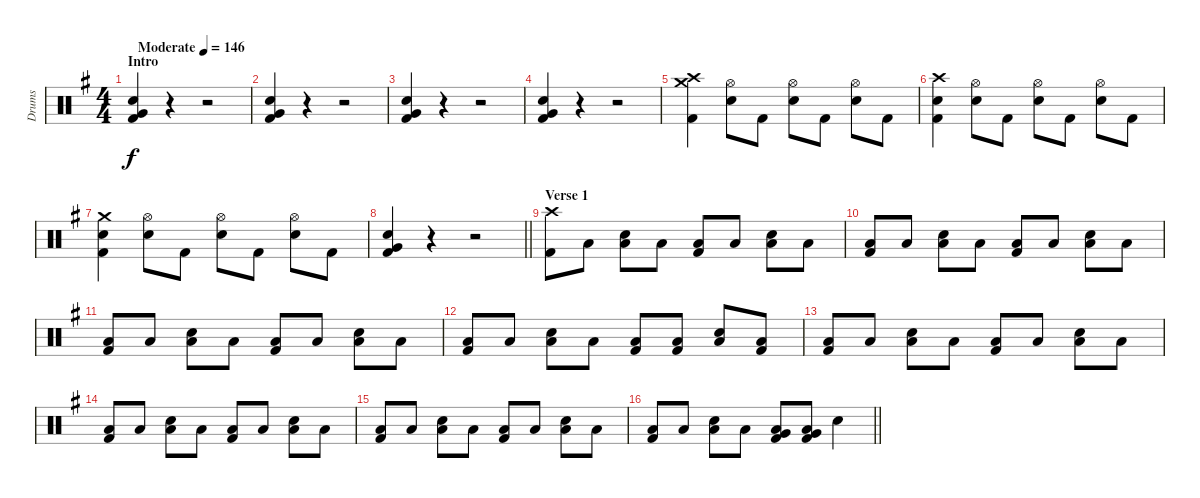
\track ("Drums" "Drums") {instrument percussion}
\staff {score}
\articulation defaults
\ts (4 4)
\section ("" "Intro")
\tempo (146 "Moderate")
\clef neutral
\ks g
("Electric Snare (hit)" "Very Low Tom (hit)" "Kick (hit) 2").4{dy f} r.4 r.2 |
("Electric Snare (hit)" "Very Low Tom (hit)" "Kick (hit) 2").4 r.4 r.2 |
("Electric Snare (hit)" "Very Low Tom (hit)" "Kick (hit) 2").4 r.4 r.2 |
("Electric Snare (hit)" "Very Low Tom (hit)" "Kick (hit) 2").4 r.4 r.2 |
("Crash high (hit)" "Crash medium (hit)" "Kick (hit) 2").4 ("Hi-Hat (open)" "Electric Snare (hit)").8 "Kick (hit) 2".8 ("Hi-Hat (open)" "Electric Snare (hit)").8 "Kick (hit) 2".8 ("Hi-Hat (open)" "Electric Snare (hit)").8 "Kick (hit) 2".8 |
("Crash high (hit)" "Electric Snare (hit)" "Kick (hit) 2").4 ("Hi-Hat (open)" "Electric Snare (hit)").8 "Kick (hit) 2".8 ("Hi-Hat (open)" "Electric Snare (hit)").8 "Kick (hit) 2".8 ("Hi-Hat (open)" "Electric Snare (hit)").8 "Kick (hit) 2".8 |
("Crash medium (hit)" "Electric Snare (hit)" "Kick (hit) 2").4 ("Hi-Hat (open)" "Electric Snare (hit)").8 "Kick (hit) 2".8 ("Hi-Hat (open)" "Electric Snare (hit)").8 "Kick (hit) 2".8 ("Hi-Hat (open)" "Electric Snare (hit)").8 "Kick (hit) 2".8 |
\barLineRight lightlight
("Electric Snare (hit)" "Very Low Tom (hit)" "Kick (hit) 2").4 r.4 r.2 |
\section ("" "Verse 1")
("Crash high (hit)" "Kick (hit) 2").8 "Low Floor Tom (hit)".8 ("Low Floor Tom (hit)" "Electric Snare (hit)").8 "Low Floor Tom (hit)".8 ("Low Floor Tom (hit)" "Kick (hit) 2").8 "Low Floor Tom (hit)".8 ("Low Floor Tom (hit)" "Electric Snare (hit)").8 "Low Floor Tom (hit)".8 |
("Low Floor Tom (hit)" "Kick (hit) 2").8 "Low Floor Tom (hit)".8 ("Low Floor Tom (hit)" "Electric Snare (hit)").8 "Low Floor Tom (hit)".8 ("Low Floor Tom (hit)" "Kick (hit) 2").8 "Low Floor Tom (hit)".8 ("Low Floor Tom (hit)" "Electric Snare (hit)").8 "Low Floor Tom (hit)".8 |
("Low Floor Tom (hit)" "Kick (hit) 2").8 "Low Floor Tom (hit)".8 ("Low Floor Tom (hit)" "Electric Snare (hit)").8 "Low Floor Tom (hit)".8 ("Low Floor Tom (hit)" "Kick (hit) 2").8 "Low Floor Tom (hit)".8 ("Low Floor Tom (hit)" "Electric Snare (hit)").8 "Low Floor Tom (hit)".8 |
("Low Floor Tom (hit)" "Kick (hit) 2").8 "Low Floor Tom (hit)".8 ("Low Floor Tom (hit)" "Electric Snare (hit)").8 "Low Floor Tom (hit)".8 ("Low Floor Tom (hit)" "Kick (hit) 2").8 ("Low Floor Tom (hit)" "Kick (hit) 2").8 ("Low Floor Tom (hit)" "Electric Snare (hit)").8 ("Low Floor Tom (hit)" "Kick (hit) 2").8 |
("Low Floor Tom (hit)" "Kick (hit) 2").8 "Low Floor Tom (hit)".8 ("Low Floor Tom (hit)" "Electric Snare (hit)").8 "Low Floor Tom (hit)".8 ("Low Floor Tom (hit)" "Kick (hit) 2").8 "Low Floor Tom (hit)".8 ("Low Floor Tom (hit)" "Electric Snare (hit)").8 "Low Floor Tom (hit)".8 |
("Low Floor Tom (hit)" "Kick (hit) 2").8 "Low Floor Tom (hit)".8 ("Low Floor Tom (hit)" "Electric Snare (hit)").8 "Low Floor Tom (hit)".8 ("Low Floor Tom (hit)" "Kick (hit) 2").8 "Low Floor Tom (hit)".8 ("Low Floor Tom (hit)" "Electric Snare (hit)").8 "Low Floor Tom (hit)".8 |
("Low Floor Tom (hit)" "Kick (hit) 2").8 "Low Floor Tom (hit)".8 ("Low Floor Tom (hit)" "Electric Snare (hit)").8 "Low Floor Tom (hit)".8 ("Low Floor Tom (hit)" "Kick (hit) 2").8 "Low Floor Tom (hit)".8 ("Low Floor Tom (hit)" "Electric Snare (hit)").8 "Low Floor Tom (hit)".8 |
\barLineRight lightlight
("Low Floor Tom (hit)" "Kick (hit) 2").8 "Low Floor Tom (hit)".8 ("Low Floor Tom (hit)" "Electric Snare (hit)").8 "Low Floor Tom (hit)".8 ("Low Tom (hit)" "Very Low Tom (hit)" "Kick (hit) 2").8 ("Low Tom (hit)" "Very Low Tom (hit)" "Kick (hit) 2").8 "Electric Snare (hit)".4
